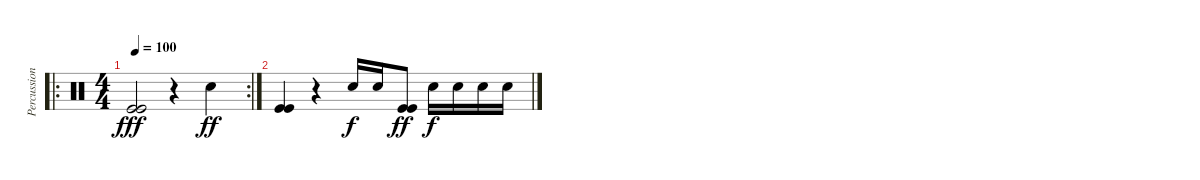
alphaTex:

\track ("Percussion" "Percussion") {instrument percussion}
\staff {score}
\articulation defaults
\ro
\rc 2
\ts (4 4)
\tempo 100
\clef neutral
\ks c
("Kick (hit)" "Kick (hit)").2{dy fff} r.4 "Snare (hit) 2".4{dy ff} |
("Kick (hit)" "Kick (hit)").4 r.4 "Snare (hit) 2".16{dy f} "Snare (hit) 2".16 ("Kick (hit)" "Kick (hit)").8{dy ff} "Snare (hit) 2".16{dy f} "Snare (hit) 2".16 "Snare (hit) 2".16 "Snare (hit) 2".16
